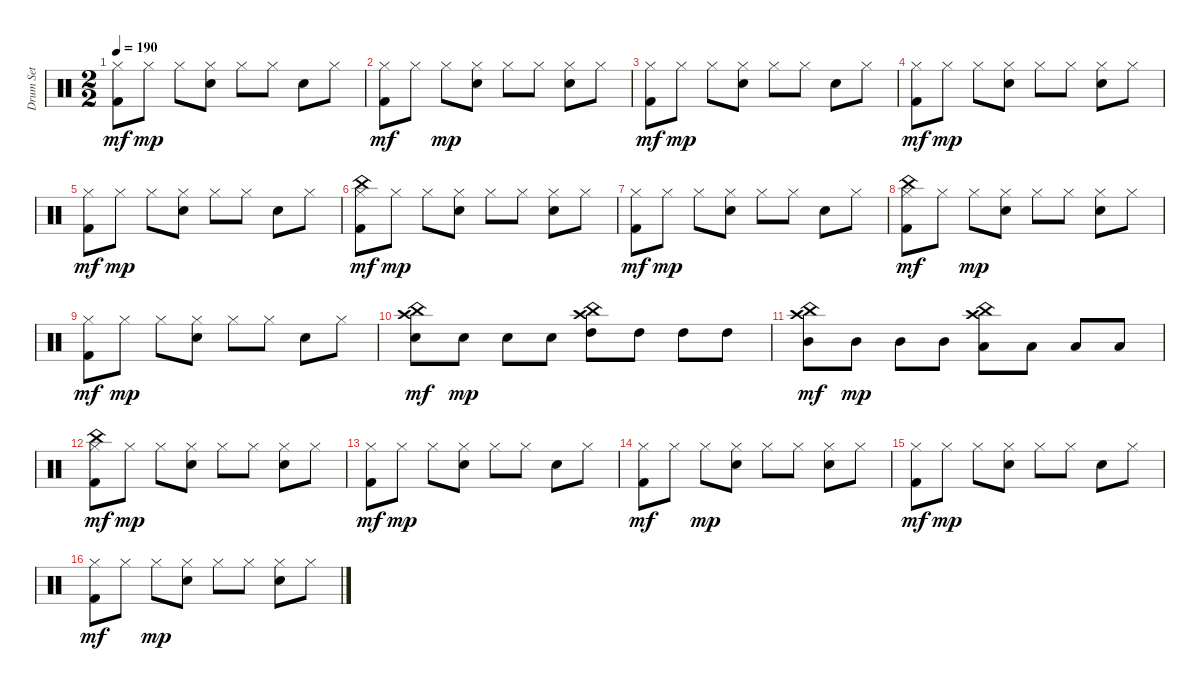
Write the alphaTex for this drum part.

\track ("Drum Set" "Drum Set") {instrument percussion}
\staff {score}
\articulation defaults
\ts (2 2)
\tempo 190
\clef neutral
\ks c
("Kick (hit) 2" "Hi-Hat (closed)").8{dy mf} "Hi-Hat (closed)".8{dy mp} "Hi-Hat (closed)".8 ("Snare (hit) 2" "Hi-Hat (closed)").8 "Hi-Hat (closed)".8 "Hi-Hat (closed)".8 "Snare (hit) 2".8 "Hi-Hat (closed)".8 |
("Kick (hit) 2" "Hi-Hat (closed)").8{dy mf} "Hi-Hat (closed)".8 "Hi-Hat (closed)".8{dy mp} ("Snare (hit) 2" "Hi-Hat (closed)").8 "Hi-Hat (closed)".8 "Hi-Hat (closed)".8 ("Snare (hit) 2" "Hi-Hat (closed)").8 "Hi-Hat (closed)".8 |
("Kick (hit) 2" "Hi-Hat (closed)").8{dy mf} "Hi-Hat (closed)".8{dy mp} "Hi-Hat (closed)".8 ("Snare (hit) 2" "Hi-Hat (closed)").8 "Hi-Hat (closed)".8 "Hi-Hat (closed)".8 "Snare (hit) 2".8 "Hi-Hat (closed)".8 |
("Kick (hit) 2" "Hi-Hat (closed)").8{dy mf} "Hi-Hat (closed)".8{dy mp} "Hi-Hat (closed)".8 ("Snare (hit) 2" "Hi-Hat (closed)").8 "Hi-Hat (closed)".8 "Hi-Hat (closed)".8 ("Snare (hit) 2" "Hi-Hat (closed)").8 "Hi-Hat (closed)".8 |
("Kick (hit) 2" "Hi-Hat (closed)").8{dy mf} "Hi-Hat (closed)".8{dy mp} "Hi-Hat (closed)".8 ("Snare (hit) 2" "Hi-Hat (closed)").8 "Hi-Hat (closed)".8 "Hi-Hat (closed)".8 "Snare (hit) 2".8 "Hi-Hat (closed)".8 |
("Kick (hit) 2" "Hi-Hat (closed)" "China (hit)").8{dy mf} "Hi-Hat (closed)".8{dy mp} "Hi-Hat (closed)".8 ("Snare (hit) 2" "Hi-Hat (closed)").8 "Hi-Hat (closed)".8 "Hi-Hat (closed)".8 ("Snare (hit) 2" "Hi-Hat (closed)").8 "Hi-Hat (closed)".8 |
("Kick (hit) 2" "Hi-Hat (closed)").8{dy mf} "Hi-Hat (closed)".8{dy mp} "Hi-Hat (closed)".8 ("Snare (hit) 2" "Hi-Hat (closed)").8 "Hi-Hat (closed)".8 "Hi-Hat (closed)".8 "Snare (hit) 2".8 "Hi-Hat (closed)".8 |
("Kick (hit) 2" "Hi-Hat (closed)" "China (hit)").8{dy mf} "Hi-Hat (closed)".8 "Hi-Hat (closed)".8{dy mp} ("Snare (hit) 2" "Hi-Hat (closed)").8 "Hi-Hat (closed)".8 "Hi-Hat (closed)".8 ("Snare (hit) 2" "Hi-Hat (closed)").8 "Hi-Hat (closed)".8 |
("Kick (hit) 2" "Hi-Hat (closed)").8{dy mf} "Hi-Hat (closed)".8{dy mp} "Hi-Hat (closed)".8 ("Snare (hit) 2" "Hi-Hat (closed)").8 "Hi-Hat (closed)".8 "Hi-Hat (closed)".8 "Snare (hit) 2".8 "Hi-Hat (closed)".8 |
("Crash high (hit)" "Snare (hit) 2" "China (hit)").8{dy mf} "Snare (hit) 2".8{dy mp} "Snare (hit) 2".8 "Snare (hit) 2".8 ("Crash high (hit)" "China (hit)" "High Tom (hit)").8 "High Tom (hit)".8 "High Tom (hit)".8 "High Tom (hit)".8 |
("Crash high (hit)" "Mid Tom (hit)" "China (hit)").8{dy mf} "Mid Tom (hit)".8{dy mp} "Mid Tom (hit)".8 "Mid Tom (hit)".8 ("Crash high (hit)" "China (hit)" "Low Tom (hit)").8 "Low Tom (hit)".8 "Low Tom (hit)".8 "Low Tom (hit)".8 |
("Kick (hit) 2" "Hi-Hat (closed)" "China (hit)").8{dy mf} "Hi-Hat (closed)".8{dy mp} "Hi-Hat (closed)".8 ("Snare (hit) 2" "Hi-Hat (closed)").8 "Hi-Hat (closed)".8 "Hi-Hat (closed)".8 ("Snare (hit) 2" "Hi-Hat (closed)").8 "Hi-Hat (closed)".8 |
("Kick (hit) 2" "Hi-Hat (closed)").8{dy mf} "Hi-Hat (closed)".8{dy mp} "Hi-Hat (closed)".8 ("Snare (hit) 2" "Hi-Hat (closed)").8 "Hi-Hat (closed)".8 "Hi-Hat (closed)".8 "Snare (hit) 2".8 "Hi-Hat (closed)".8 |
("Kick (hit) 2" "Hi-Hat (closed)").8{dy mf} "Hi-Hat (closed)".8 "Hi-Hat (closed)".8{dy mp} ("Snare (hit) 2" "Hi-Hat (closed)").8 "Hi-Hat (closed)".8 "Hi-Hat (closed)".8 ("Snare (hit) 2" "Hi-Hat (closed)").8 "Hi-Hat (closed)".8 |
("Kick (hit) 2" "Hi-Hat (closed)").8{dy mf} "Hi-Hat (closed)".8{dy mp} "Hi-Hat (closed)".8 ("Snare (hit) 2" "Hi-Hat (closed)").8 "Hi-Hat (closed)".8 "Hi-Hat (closed)".8 "Snare (hit) 2".8 "Hi-Hat (closed)".8 |
("Kick (hit) 2" "Hi-Hat (closed)").8{dy mf} "Hi-Hat (closed)".8 "Hi-Hat (closed)".8{dy mp} ("Snare (hit) 2" "Hi-Hat (closed)").8 "Hi-Hat (closed)".8 "Hi-Hat (closed)".8 ("Snare (hit) 2" "Hi-Hat (closed)").8 "Hi-Hat (closed)".8
